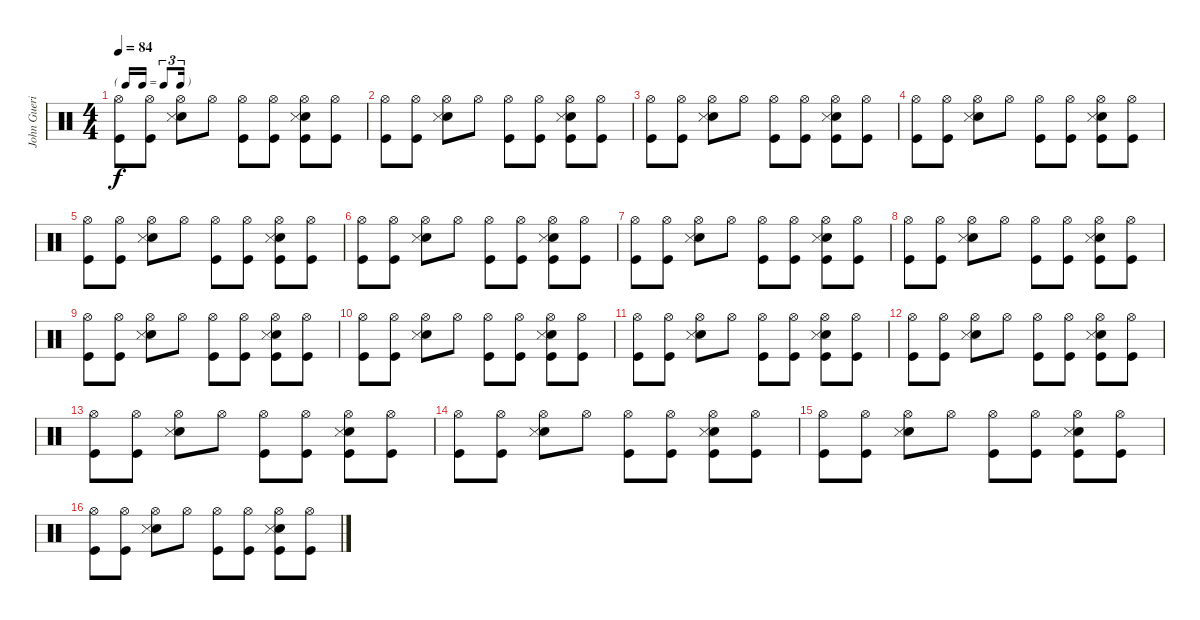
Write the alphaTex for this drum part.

\track ("John Guerin - Drums" "John Gueri") {instrument percussion}
\staff {score}
\articulation defaults
\ts (4 4)
\tf triplet16th
\tempo 84
\clef neutral
\ks c
("Hi-Hat (open)" "Kick (hit)").8{dy f} ("Hi-Hat (open)" "Kick (hit)").8 ("Hi-Hat (open)" "Electric Snare (hit)" "Snare (side stick) 3").8 "Hi-Hat (open)".8 ("Hi-Hat (open)" "Kick (hit)").8 ("Hi-Hat (open)" "Kick (hit)").8 ("Hi-Hat (open)" "Electric Snare (hit)" "Snare (side stick) 3" "Kick (hit)").8 ("Hi-Hat (open)" "Kick (hit)").8 |
("Hi-Hat (open)" "Kick (hit)").8 ("Hi-Hat (open)" "Kick (hit)").8 ("Hi-Hat (open)" "Electric Snare (hit)" "Snare (side stick) 3").8 "Hi-Hat (open)".8 ("Hi-Hat (open)" "Kick (hit)").8 ("Hi-Hat (open)" "Kick (hit)").8 ("Hi-Hat (open)" "Electric Snare (hit)" "Snare (side stick) 3" "Kick (hit)").8 ("Hi-Hat (open)" "Kick (hit)").8 |
("Hi-Hat (open)" "Kick (hit)").8 ("Hi-Hat (open)" "Kick (hit)").8 ("Hi-Hat (open)" "Electric Snare (hit)" "Snare (side stick) 3").8 "Hi-Hat (open)".8 ("Hi-Hat (open)" "Kick (hit)").8 ("Hi-Hat (open)" "Kick (hit)").8 ("Hi-Hat (open)" "Electric Snare (hit)" "Snare (side stick) 3" "Kick (hit)").8 ("Hi-Hat (open)" "Kick (hit)").8 |
("Hi-Hat (open)" "Kick (hit)").8 ("Hi-Hat (open)" "Kick (hit)").8 ("Hi-Hat (open)" "Electric Snare (hit)" "Snare (side stick) 3").8 "Hi-Hat (open)".8 ("Hi-Hat (open)" "Kick (hit)").8 ("Hi-Hat (open)" "Kick (hit)").8 ("Hi-Hat (open)" "Electric Snare (hit)" "Snare (side stick) 3" "Kick (hit)").8 ("Hi-Hat (open)" "Kick (hit)").8 |
("Hi-Hat (open)" "Kick (hit)").8 ("Hi-Hat (open)" "Kick (hit)").8 ("Hi-Hat (open)" "Electric Snare (hit)" "Snare (side stick) 3").8 "Hi-Hat (open)".8 ("Hi-Hat (open)" "Kick (hit)").8 ("Hi-Hat (open)" "Kick (hit)").8 ("Hi-Hat (open)" "Electric Snare (hit)" "Snare (side stick) 3" "Kick (hit)").8 ("Hi-Hat (open)" "Kick (hit)").8 |
("Hi-Hat (open)" "Kick (hit)").8 ("Hi-Hat (open)" "Kick (hit)").8 ("Hi-Hat (open)" "Electric Snare (hit)" "Snare (side stick) 3").8 "Hi-Hat (open)".8 ("Hi-Hat (open)" "Kick (hit)").8 ("Hi-Hat (open)" "Kick (hit)").8 ("Hi-Hat (open)" "Electric Snare (hit)" "Snare (side stick) 3" "Kick (hit)").8 ("Hi-Hat (open)" "Kick (hit)").8 |
("Hi-Hat (open)" "Kick (hit)").8 ("Hi-Hat (open)" "Kick (hit)").8 ("Hi-Hat (open)" "Electric Snare (hit)" "Snare (side stick) 3").8 "Hi-Hat (open)".8 ("Hi-Hat (open)" "Kick (hit)").8 ("Hi-Hat (open)" "Kick (hit)").8 ("Hi-Hat (open)" "Electric Snare (hit)" "Snare (side stick) 3" "Kick (hit)").8 ("Hi-Hat (open)" "Kick (hit)").8 |
("Hi-Hat (open)" "Kick (hit)").8 ("Hi-Hat (open)" "Kick (hit)").8 ("Hi-Hat (open)" "Electric Snare (hit)" "Snare (side stick) 3").8 "Hi-Hat (open)".8 ("Hi-Hat (open)" "Kick (hit)").8 ("Hi-Hat (open)" "Kick (hit)").8 ("Hi-Hat (open)" "Electric Snare (hit)" "Snare (side stick) 3" "Kick (hit)").8 ("Hi-Hat (open)" "Kick (hit)").8 |
("Hi-Hat (open)" "Kick (hit)").8 ("Hi-Hat (open)" "Kick (hit)").8 ("Hi-Hat (open)" "Electric Snare (hit)" "Snare (side stick) 3").8 "Hi-Hat (open)".8 ("Hi-Hat (open)" "Kick (hit)").8 ("Hi-Hat (open)" "Kick (hit)").8 ("Hi-Hat (open)" "Electric Snare (hit)" "Snare (side stick) 3" "Kick (hit)").8 ("Hi-Hat (open)" "Kick (hit)").8 |
("Hi-Hat (open)" "Kick (hit)").8 ("Hi-Hat (open)" "Kick (hit)").8 ("Hi-Hat (open)" "Electric Snare (hit)" "Snare (side stick) 3").8 "Hi-Hat (open)".8 ("Hi-Hat (open)" "Kick (hit)").8 ("Hi-Hat (open)" "Kick (hit)").8 ("Hi-Hat (open)" "Electric Snare (hit)" "Snare (side stick) 3" "Kick (hit)").8 ("Hi-Hat (open)" "Kick (hit)").8 |
("Hi-Hat (open)" "Kick (hit)").8 ("Hi-Hat (open)" "Kick (hit)").8 ("Hi-Hat (open)" "Electric Snare (hit)" "Snare (side stick) 3").8 "Hi-Hat (open)".8 ("Hi-Hat (open)" "Kick (hit)").8 ("Hi-Hat (open)" "Kick (hit)").8 ("Hi-Hat (open)" "Electric Snare (hit)" "Snare (side stick) 3" "Kick (hit)").8 ("Hi-Hat (open)" "Kick (hit)").8 |
("Hi-Hat (open)" "Kick (hit)").8 ("Hi-Hat (open)" "Kick (hit)").8 ("Hi-Hat (open)" "Electric Snare (hit)" "Snare (side stick) 3").8 "Hi-Hat (open)".8 ("Hi-Hat (open)" "Kick (hit)").8 ("Hi-Hat (open)" "Kick (hit)").8 ("Hi-Hat (open)" "Electric Snare (hit)" "Snare (side stick) 3" "Kick (hit)").8 ("Hi-Hat (open)" "Kick (hit)").8 |
("Hi-Hat (open)" "Kick (hit)").8 ("Hi-Hat (open)" "Kick (hit)").8 ("Hi-Hat (open)" "Electric Snare (hit)" "Snare (side stick) 3").8 "Hi-Hat (open)".8 ("Hi-Hat (open)" "Kick (hit)").8 ("Hi-Hat (open)" "Kick (hit)").8 ("Hi-Hat (open)" "Electric Snare (hit)" "Snare (side stick) 3" "Kick (hit)").8 ("Hi-Hat (open)" "Kick (hit)").8 |
("Hi-Hat (open)" "Kick (hit)").8 ("Hi-Hat (open)" "Kick (hit)").8 ("Hi-Hat (open)" "Electric Snare (hit)" "Snare (side stick) 3").8 "Hi-Hat (open)".8 ("Hi-Hat (open)" "Kick (hit)").8 ("Hi-Hat (open)" "Kick (hit)").8 ("Hi-Hat (open)" "Electric Snare (hit)" "Snare (side stick) 3" "Kick (hit)").8 ("Hi-Hat (open)" "Kick (hit)").8 |
("Hi-Hat (open)" "Kick (hit)").8 ("Hi-Hat (open)" "Kick (hit)").8 ("Hi-Hat (open)" "Electric Snare (hit)" "Snare (side stick) 3").8 "Hi-Hat (open)".8 ("Hi-Hat (open)" "Kick (hit)").8 ("Hi-Hat (open)" "Kick (hit)").8 ("Hi-Hat (open)" "Electric Snare (hit)" "Snare (side stick) 3" "Kick (hit)").8 ("Hi-Hat (open)" "Kick (hit)").8 |
("Hi-Hat (open)" "Kick (hit)").8 ("Hi-Hat (open)" "Kick (hit)").8 ("Hi-Hat (open)" "Electric Snare (hit)" "Snare (side stick) 3").8 "Hi-Hat (open)".8 ("Hi-Hat (open)" "Kick (hit)").8 ("Hi-Hat (open)" "Kick (hit)").8 ("Hi-Hat (open)" "Electric Snare (hit)" "Snare (side stick) 3" "Kick (hit)").8 ("Hi-Hat (open)" "Kick (hit)").8
